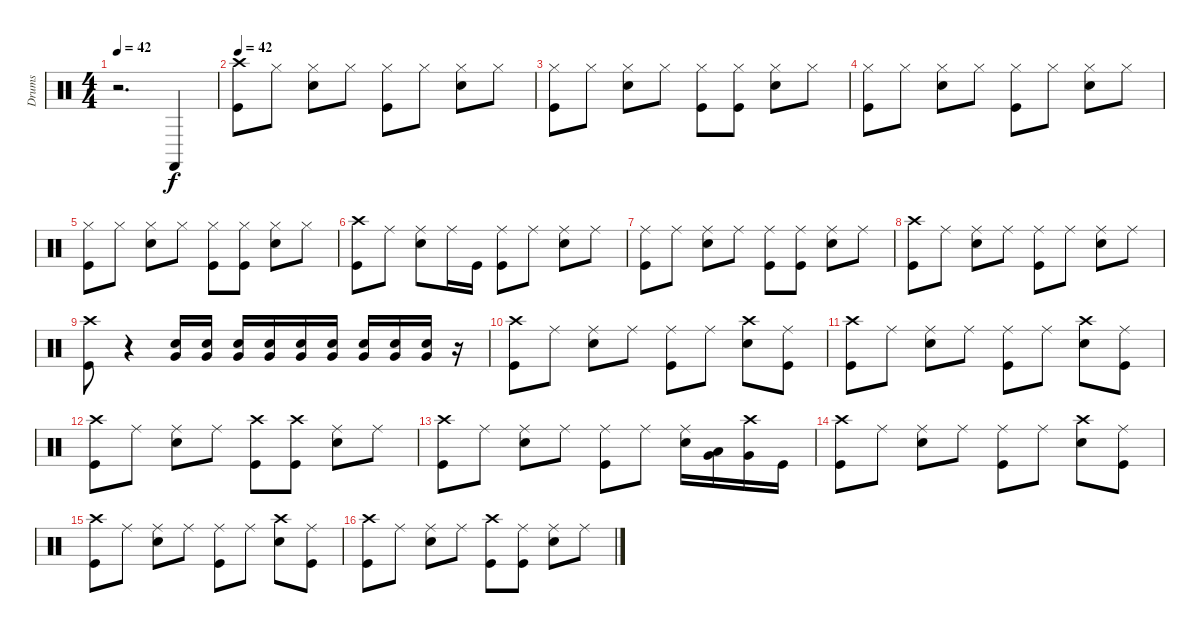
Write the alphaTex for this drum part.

\track ("Drums" "Drums") {instrument percussion}
\staff {score}
\articulation defaults
\ts (4 4)
\tempo 42
\clef neutral
\ks c
r.2{d dy f} "Castanets (hit)".4 |
\tempo 42
("Crash high (hit)" "Kick (hit)").8 "Hi-Hat (closed)".8 ("Snare (hit) 2" "Hi-Hat (closed)").8 "Hi-Hat (closed)".8 ("Hi-Hat (closed)" "Kick (hit)").8 "Hi-Hat (closed)".8 ("Snare (hit) 2" "Hi-Hat (closed)").8 "Hi-Hat (closed)".8 |
("Hi-Hat (closed)" "Kick (hit)").8 "Hi-Hat (closed)".8 ("Snare (hit) 2" "Hi-Hat (closed)").8 "Hi-Hat (closed)".8 ("Kick (hit)" "Hi-Hat (closed)").8 ("Kick (hit)" "Hi-Hat (closed)").8 ("Snare (hit) 2" "Hi-Hat (closed)").8 "Hi-Hat (closed)".8 |
("Hi-Hat (closed)" "Kick (hit)").8 "Hi-Hat (closed)".8 ("Snare (hit) 2" "Hi-Hat (closed)").8 "Hi-Hat (closed)".8 ("Kick (hit)" "Hi-Hat (closed)").8 "Hi-Hat (closed)".8 ("Snare (hit) 2" "Hi-Hat (closed)").8 "Hi-Hat (closed)".8 |
("Hi-Hat (closed)" "Kick (hit)").8 "Hi-Hat (closed)".8 ("Snare (hit) 2" "Hi-Hat (closed)").8 "Hi-Hat (closed)".8 ("Kick (hit)" "Hi-Hat (closed)").8 ("Kick (hit)" "Hi-Hat (closed)").8 ("Snare (hit) 2" "Hi-Hat (closed)").8 "Hi-Hat (closed)".8 |
("Crash high (hit)" "Kick (hit)").8 "Ride (middle)".8 ("Ride (middle)" "Snare (hit) 2").8 "Ride (middle)".16 "Kick (hit)".16 ("Ride (middle)" "Kick (hit)").8 "Ride (middle)".8 ("Ride (middle)" "Snare (hit) 2").8 "Ride (middle)".8 |
("Ride (middle)" "Kick (hit)").8 "Ride (middle)".8 ("Ride (middle)" "Snare (hit) 2").8 "Ride (middle)".8 ("Ride (middle)" "Kick (hit)").8 ("Ride (middle)" "Kick (hit)").8 ("Ride (middle)" "Snare (hit) 2").8 "Ride (middle)".8 |
("Crash high (hit)" "Kick (hit)").8 "Ride (middle)".8 ("Ride (middle)" "Snare (hit) 2").8 "Ride (middle)".8 ("Ride (middle)" "Kick (hit)").8 "Ride (middle)".8 ("Ride (middle)" "Snare (hit) 2").8 "Ride (middle)".8 |
("Crash high (hit)" "Kick (hit)").8 r.4 ("Very Low Tom (hit)" "Snare (hit) 2").16 ("Very Low Tom (hit)" "Snare (hit) 2").16 ("Snare (hit) 2" "Very Low Tom (hit)").16 ("Snare (hit) 2" "Very Low Tom (hit)").16 ("Snare (hit) 2" "Very Low Tom (hit)").16 ("Snare (hit) 2" "Very Low Tom (hit)").16 ("Snare (hit) 2" "Very Low Tom (hit)").16 ("Snare (hit) 2" "Very Low Tom (hit)").16 ("Snare (hit) 2" "Very Low Tom (hit)").16 r.16 |
("Crash high (hit)" "Kick (hit)").8 "Ride (middle)".8 ("Snare (hit) 2" "Ride (middle)").8 "Ride (middle)".8 ("Ride (middle)" "Kick (hit)").8 "Ride (middle)".8 ("Snare (hit) 2" "Crash high (hit)").8 ("Kick (hit)" "Ride (middle)").8 |
("Crash high (hit)" "Kick (hit)").8 "Ride (middle)".8 ("Snare (hit) 2" "Ride (middle)").8 "Ride (middle)".8 ("Ride (middle)" "Kick (hit)").8 "Ride (middle)".8 ("Snare (hit) 2" "Crash high (hit)").8 ("Kick (hit)" "Ride (middle)").8 |
("Crash high (hit)" "Kick (hit)").8 "Ride (middle)".8 ("Snare (hit) 2" "Ride (middle)").8 "Ride (middle)".8 ("Crash high (hit)" "Kick (hit)").8 ("Crash high (hit)" "Kick (hit)").8 ("Ride (middle)" "Snare (hit) 2").8 "Ride (middle)".8 |
("Crash high (hit)" "Kick (hit)").8 "Ride (middle)".8 ("Ride (middle)" "Snare (hit) 2").8 "Ride (middle)".8 ("Ride (middle)" "Kick (hit)").8 "Ride (middle)".8 ("Ride (middle)" "Snare (hit) 2").16 ("Low Tom (hit)" "Very Low Tom (hit)").16 ("Crash high (hit)" "Very Low Tom (hit)").16 "Kick (hit)".16 |
("Crash high (hit)" "Kick (hit)").8 "Ride (middle)".8 ("Snare (hit) 2" "Ride (middle)").8 "Ride (middle)".8 ("Ride (middle)" "Kick (hit)").8 "Ride (middle)".8 ("Snare (hit) 2" "Crash high (hit)").8 ("Kick (hit)" "Ride (middle)").8 |
("Crash high (hit)" "Kick (hit)").8 "Ride (middle)".8 ("Snare (hit) 2" "Ride (middle)").8 "Ride (middle)".8 ("Ride (middle)" "Kick (hit)").8 "Ride (middle)".8 ("Snare (hit) 2" "Crash high (hit)").8 ("Kick (hit)" "Ride (middle)").8 |
("Crash high (hit)" "Kick (hit)").8 "Ride (middle)".8 ("Snare (hit) 2" "Ride (middle)").8 "Ride (middle)".8 ("Crash high (hit)" "Kick (hit)").8 ("Ride (middle)" "Kick (hit)").8 ("Ride (middle)" "Snare (hit) 2").8 "Ride (middle)".8
